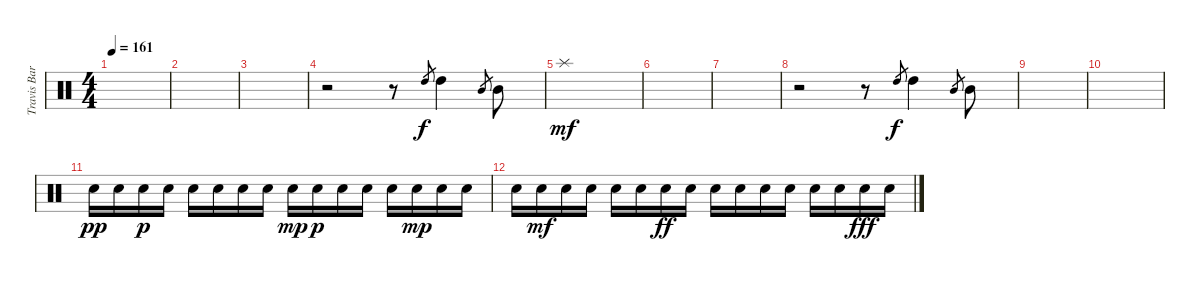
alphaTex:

\track ("Travis Barker - Overdubbed Drums" "Travis Bar") {instrument percussion}
\staff {score}
\articulation defaults
\ts (4 4)
\tempo 161
\clef neutral
\ks c
|
|
|
r.2 r.8 "High Tom (hit)".8{gr} "High Tom (hit)".4 "Mid Tom (hit)".8{gr} "Mid Tom (hit)".8 |
"Splash (hit)".1{dy mf} |
|
|
r.2 r.8 "High Tom (hit)".8{gr dy f} "High Tom (hit)".4 "Mid Tom (hit)".8{gr} "Mid Tom (hit)".8 |
|
|
"Electric Snare (hit)".16{dy pp} "Electric Snare (hit)".16 "Electric Snare (hit)".16{dy p} "Electric Snare (hit)".16 "Electric Snare (hit)".16 "Electric Snare (hit)".16 "Electric Snare (hit)".16 "Electric Snare (hit)".16 "Electric Snare (hit)".16{dy mp} "Electric Snare (hit)".16{dy p} "Electric Snare (hit)".16 "Electric Snare (hit)".16 "Electric Snare (hit)".16 "Electric Snare (hit)".16{dy mp} "Electric Snare (hit)".16 "Electric Snare (hit)".16 |
"Electric Snare (hit)".16 "Electric Snare (hit)".16{dy mf} "Electric Snare (hit)".16 "Electric Snare (hit)".16 "Electric Snare (hit)".16 "Electric Snare (hit)".16 "Electric Snare (hit)".16{dy ff} "Electric Snare (hit)".16 "Electric Snare (hit)".16 "Electric Snare (hit)".16 "Electric Snare (hit)".16 "Electric Snare (hit)".16 "Electric Snare (hit)".16 "Electric Snare (hit)".16 "Electric Snare (hit)".16{dy fff} "Electric Snare (hit)".16
